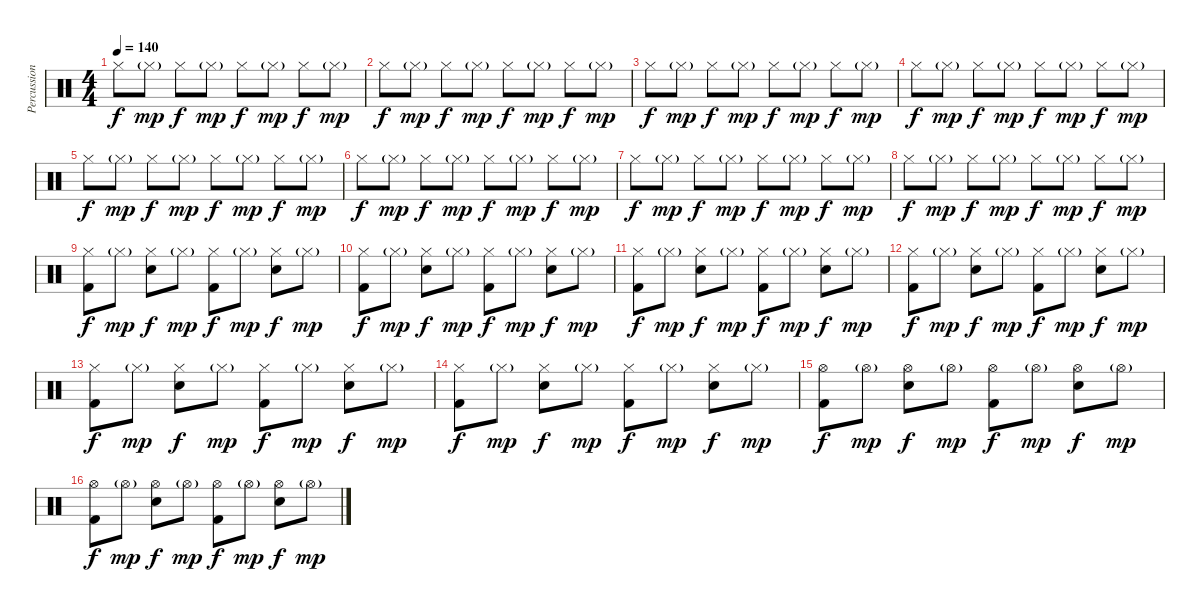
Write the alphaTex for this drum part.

\track ("Percussion" "Percussion") {instrument percussion}
\staff {score}
\articulation defaults
\ts (4 4)
\tempo 140
\clef neutral
\ks c "Hi-Hat (closed)".8{dy f} "Hi-Hat (closed)"{g}.8{dy mp} "Hi-Hat (closed)".8{dy f} "Hi-Hat (closed)"{g}.8{dy mp} "Hi-Hat (closed)".8{dy f} "Hi-Hat (closed)"{g}.8{dy mp} "Hi-Hat (closed)".8{dy f} "Hi-Hat (closed)"{g}.8{dy mp}
|
"Hi-Hat (closed)".8{dy f} "Hi-Hat (closed)"{g}.8{dy mp} "Hi-Hat (closed)".8{dy f} "Hi-Hat (closed)"{g}.8{dy mp} "Hi-Hat (closed)".8{dy f} "Hi-Hat (closed)"{g}.8{dy mp} "Hi-Hat (closed)".8{dy f} "Hi-Hat (closed)"{g}.8{dy mp} |
"Hi-Hat (closed)".8{dy f} "Hi-Hat (closed)"{g}.8{dy mp} "Hi-Hat (closed)".8{dy f} "Hi-Hat (closed)"{g}.8{dy mp} "Hi-Hat (closed)".8{dy f} "Hi-Hat (closed)"{g}.8{dy mp} "Hi-Hat (closed)".8{dy f} "Hi-Hat (closed)"{g}.8{dy mp} |
"Hi-Hat (closed)".8{dy f} "Hi-Hat (closed)"{g}.8{dy mp} "Hi-Hat (closed)".8{dy f} "Hi-Hat (closed)"{g}.8{dy mp} "Hi-Hat (closed)".8{dy f} "Hi-Hat (closed)"{g}.8{dy mp} "Hi-Hat (closed)".8{dy f} "Hi-Hat (closed)"{g}.8{dy mp} |
"Hi-Hat (closed)".8{dy f} "Hi-Hat (closed)"{g}.8{dy mp} "Hi-Hat (closed)".8{dy f} "Hi-Hat (closed)"{g}.8{dy mp} "Hi-Hat (closed)".8{dy f} "Hi-Hat (closed)"{g}.8{dy mp} "Hi-Hat (closed)".8{dy f} "Hi-Hat (closed)"{g}.8{dy mp} |
"Hi-Hat (closed)".8{dy f} "Hi-Hat (closed)"{g}.8{dy mp} "Hi-Hat (closed)".8{dy f} "Hi-Hat (closed)"{g}.8{dy mp} "Hi-Hat (closed)".8{dy f} "Hi-Hat (closed)"{g}.8{dy mp} "Hi-Hat (closed)".8{dy f} "Hi-Hat (closed)"{g}.8{dy mp} |
"Hi-Hat (closed)".8{dy f} "Hi-Hat (closed)"{g}.8{dy mp} "Hi-Hat (closed)".8{dy f} "Hi-Hat (closed)"{g}.8{dy mp} "Hi-Hat (closed)".8{dy f} "Hi-Hat (closed)"{g}.8{dy mp} "Hi-Hat (closed)".8{dy f} "Hi-Hat (closed)"{g}.8{dy mp} |
"Hi-Hat (closed)".8{dy f} "Hi-Hat (closed)"{g}.8{dy mp} "Hi-Hat (closed)".8{dy f} "Hi-Hat (closed)"{g}.8{dy mp} "Hi-Hat (closed)".8{dy f} "Hi-Hat (closed)"{g}.8{dy mp} "Hi-Hat (closed)".8{dy f} "Hi-Hat (closed)"{g}.8{dy mp} |
("Hi-Hat (closed)" "Kick (hit) 2").8{dy f} "Hi-Hat (closed)"{g}.8{dy mp} ("Hi-Hat (closed)" "Snare (hit) 2").8{dy f} "Hi-Hat (closed)"{g}.8{dy mp} ("Hi-Hat (closed)" "Kick (hit) 2").8{dy f} "Hi-Hat (closed)"{g}.8{dy mp} ("Hi-Hat (closed)" "Snare (hit) 2").8{dy f} "Hi-Hat (closed)"{g}.8{dy mp} |
("Hi-Hat (closed)" "Kick (hit) 2").8{dy f} "Hi-Hat (closed)"{g}.8{dy mp} ("Hi-Hat (closed)" "Snare (hit) 2").8{dy f} "Hi-Hat (closed)"{g}.8{dy mp} ("Hi-Hat (closed)" "Kick (hit) 2").8{dy f} "Hi-Hat (closed)"{g}.8{dy mp} ("Hi-Hat (closed)" "Snare (hit) 2").8{dy f} "Hi-Hat (closed)"{g}.8{dy mp} |
("Hi-Hat (closed)" "Kick (hit) 2").8{dy f} "Hi-Hat (closed)"{g}.8{dy mp} ("Hi-Hat (closed)" "Snare (hit) 2").8{dy f} "Hi-Hat (closed)"{g}.8{dy mp} ("Hi-Hat (closed)" "Kick (hit) 2").8{dy f} "Hi-Hat (closed)"{g}.8{dy mp} ("Hi-Hat (closed)" "Snare (hit) 2").8{dy f} "Hi-Hat (closed)"{g}.8{dy mp} |
("Hi-Hat (closed)" "Kick (hit) 2").8{dy f} "Hi-Hat (closed)"{g}.8{dy mp} ("Hi-Hat (closed)" "Snare (hit) 2").8{dy f} "Hi-Hat (closed)"{g}.8{dy mp} ("Hi-Hat (closed)" "Kick (hit) 2").8{dy f} "Hi-Hat (closed)"{g}.8{dy mp} ("Hi-Hat (closed)" "Snare (hit) 2").8{dy f} "Hi-Hat (closed)"{g}.8{dy mp} |
("Hi-Hat (closed)" "Kick (hit) 2").8{dy f} "Hi-Hat (closed)"{g}.8{dy mp} ("Hi-Hat (closed)" "Snare (hit) 2").8{dy f} "Hi-Hat (closed)"{g}.8{dy mp} ("Hi-Hat (closed)" "Kick (hit) 2").8{dy f} "Hi-Hat (closed)"{g}.8{dy mp} ("Hi-Hat (closed)" "Snare (hit) 2").8{dy f} "Hi-Hat (closed)"{g}.8{dy mp} |
("Hi-Hat (closed)" "Kick (hit) 2").8{dy f} "Hi-Hat (closed)"{g}.8{dy mp} ("Hi-Hat (closed)" "Snare (hit) 2").8{dy f} "Hi-Hat (closed)"{g}.8{dy mp} ("Hi-Hat (closed)" "Kick (hit) 2").8{dy f} "Hi-Hat (closed)"{g}.8{dy mp} ("Hi-Hat (closed)" "Snare (hit) 2").8{dy f} "Hi-Hat (closed)"{g}.8{dy mp} |
("Hi-Hat (open)" "Kick (hit) 2").8{dy f} "Hi-Hat (open)"{g}.8{dy mp} ("Hi-Hat (open)" "Snare (hit) 2").8{dy f} "Hi-Hat (open)"{g}.8{dy mp} ("Hi-Hat (open)" "Kick (hit) 2").8{dy f} "Hi-Hat (open)"{g}.8{dy mp} ("Hi-Hat (open)" "Snare (hit) 2").8{dy f} "Hi-Hat (open)"{g}.8{dy mp} |
("Hi-Hat (open)" "Kick (hit) 2").8{dy f} "Hi-Hat (open)"{g}.8{dy mp} ("Hi-Hat (open)" "Snare (hit) 2").8{dy f} "Hi-Hat (open)"{g}.8{dy mp} ("Hi-Hat (open)" "Kick (hit) 2").8{dy f} "Hi-Hat (open)"{g}.8{dy mp} ("Hi-Hat (open)" "Snare (hit) 2").8{dy f} "Hi-Hat (open)"{g}.8{dy mp}
